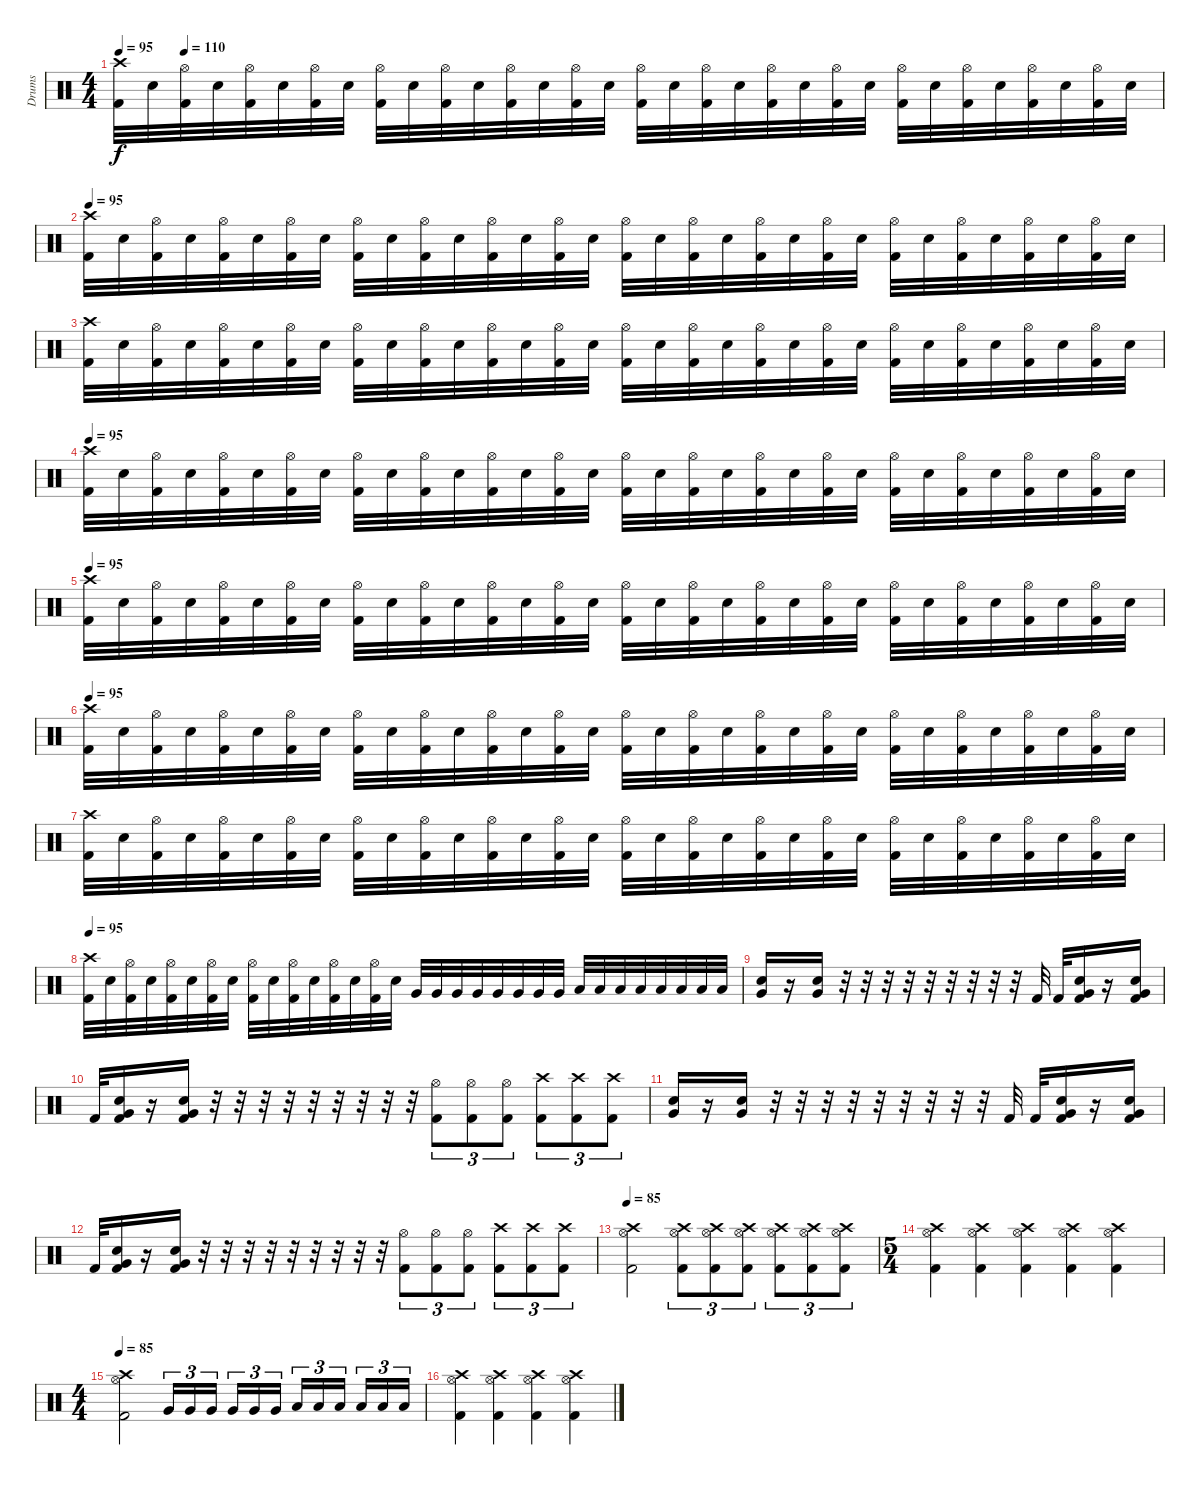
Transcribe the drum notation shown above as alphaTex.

\track ("Drums" "Drums") {instrument percussion}
\staff {score}
\articulation defaults
\ts (4 4)
\tempo 95
\tempo (110 0.0625)
\clef neutral
\ks c
("Crash high (hit)" "Kick (hit) 2").32{dy f} "Snare (hit) 2".32 ("Hi-Hat (open)" "Kick (hit) 2").32 "Snare (hit) 2".32 ("Hi-Hat (open)" "Kick (hit) 2").32 "Snare (hit) 2".32 ("Hi-Hat (open)" "Kick (hit) 2").32 "Snare (hit) 2".32 ("Hi-Hat (open)" "Kick (hit) 2").32 "Snare (hit) 2".32 ("Hi-Hat (open)" "Kick (hit) 2").32 "Snare (hit) 2".32 ("Hi-Hat (open)" "Kick (hit) 2").32 "Snare (hit) 2".32 ("Hi-Hat (open)" "Kick (hit) 2").32 "Snare (hit) 2".32 ("Hi-Hat (open)" "Kick (hit) 2").32 "Snare (hit) 2".32 ("Hi-Hat (open)" "Kick (hit) 2").32 "Snare (hit) 2".32 ("Hi-Hat (open)" "Kick (hit) 2").32 "Snare (hit) 2".32 ("Hi-Hat (open)" "Kick (hit) 2").32 "Snare (hit) 2".32 ("Hi-Hat (open)" "Kick (hit) 2").32 "Snare (hit) 2".32 ("Hi-Hat (open)" "Kick (hit) 2").32 "Snare (hit) 2".32 ("Hi-Hat (open)" "Kick (hit) 2").32 "Snare (hit) 2".32 ("Hi-Hat (open)" "Kick (hit) 2").32 "Snare (hit) 2".32 |
\tempo 95
("Crash high (hit)" "Kick (hit) 2").32 "Snare (hit) 2".32 ("Hi-Hat (open)" "Kick (hit) 2").32 "Snare (hit) 2".32 ("Hi-Hat (open)" "Kick (hit) 2").32 "Snare (hit) 2".32 ("Hi-Hat (open)" "Kick (hit) 2").32 "Snare (hit) 2".32 ("Hi-Hat (open)" "Kick (hit) 2").32 "Snare (hit) 2".32 ("Hi-Hat (open)" "Kick (hit) 2").32 "Snare (hit) 2".32 ("Hi-Hat (open)" "Kick (hit) 2").32 "Snare (hit) 2".32 ("Hi-Hat (open)" "Kick (hit) 2").32 "Snare (hit) 2".32 ("Hi-Hat (open)" "Kick (hit) 2").32 "Snare (hit) 2".32 ("Hi-Hat (open)" "Kick (hit) 2").32 "Snare (hit) 2".32 ("Hi-Hat (open)" "Kick (hit) 2").32 "Snare (hit) 2".32 ("Hi-Hat (open)" "Kick (hit) 2").32 "Snare (hit) 2".32 ("Hi-Hat (open)" "Kick (hit) 2").32 "Snare (hit) 2".32 ("Hi-Hat (open)" "Kick (hit) 2").32 "Snare (hit) 2".32 ("Hi-Hat (open)" "Kick (hit) 2").32 "Snare (hit) 2".32 ("Hi-Hat (open)" "Kick (hit) 2").32 "Snare (hit) 2".32 |
("Crash high (hit)" "Kick (hit) 2").32 "Snare (hit) 2".32 ("Hi-Hat (open)" "Kick (hit) 2").32 "Snare (hit) 2".32 ("Hi-Hat (open)" "Kick (hit) 2").32 "Snare (hit) 2".32 ("Hi-Hat (open)" "Kick (hit) 2").32 "Snare (hit) 2".32 ("Hi-Hat (open)" "Kick (hit) 2").32 "Snare (hit) 2".32 ("Hi-Hat (open)" "Kick (hit) 2").32 "Snare (hit) 2".32 ("Hi-Hat (open)" "Kick (hit) 2").32 "Snare (hit) 2".32 ("Hi-Hat (open)" "Kick (hit) 2").32 "Snare (hit) 2".32 ("Hi-Hat (open)" "Kick (hit) 2").32 "Snare (hit) 2".32 ("Hi-Hat (open)" "Kick (hit) 2").32 "Snare (hit) 2".32 ("Hi-Hat (open)" "Kick (hit) 2").32 "Snare (hit) 2".32 ("Hi-Hat (open)" "Kick (hit) 2").32 "Snare (hit) 2".32 ("Hi-Hat (open)" "Kick (hit) 2").32 "Snare (hit) 2".32 ("Hi-Hat (open)" "Kick (hit) 2").32 "Snare (hit) 2".32 ("Hi-Hat (open)" "Kick (hit) 2").32 "Snare (hit) 2".32 ("Hi-Hat (open)" "Kick (hit) 2").32 "Snare (hit) 2".32 |
\tempo 95
("Crash high (hit)" "Kick (hit) 2").32 "Snare (hit) 2".32 ("Hi-Hat (open)" "Kick (hit) 2").32 "Snare (hit) 2".32 ("Hi-Hat (open)" "Kick (hit) 2").32 "Snare (hit) 2".32 ("Hi-Hat (open)" "Kick (hit) 2").32 "Snare (hit) 2".32 ("Hi-Hat (open)" "Kick (hit) 2").32 "Snare (hit) 2".32 ("Hi-Hat (open)" "Kick (hit) 2").32 "Snare (hit) 2".32 ("Hi-Hat (open)" "Kick (hit) 2").32 "Snare (hit) 2".32 ("Hi-Hat (open)" "Kick (hit) 2").32 "Snare (hit) 2".32 ("Hi-Hat (open)" "Kick (hit) 2").32 "Snare (hit) 2".32 ("Hi-Hat (open)" "Kick (hit) 2").32 "Snare (hit) 2".32 ("Hi-Hat (open)" "Kick (hit) 2").32 "Snare (hit) 2".32 ("Hi-Hat (open)" "Kick (hit) 2").32 "Snare (hit) 2".32 ("Hi-Hat (open)" "Kick (hit) 2").32 "Snare (hit) 2".32 ("Hi-Hat (open)" "Kick (hit) 2").32 "Snare (hit) 2".32 ("Hi-Hat (open)" "Kick (hit) 2").32 "Snare (hit) 2".32 ("Hi-Hat (open)" "Kick (hit) 2").32 "Snare (hit) 2".32 |
\tempo 95
("Crash high (hit)" "Kick (hit) 2").32 "Snare (hit) 2".32 ("Hi-Hat (open)" "Kick (hit) 2").32 "Snare (hit) 2".32 ("Hi-Hat (open)" "Kick (hit) 2").32 "Snare (hit) 2".32 ("Hi-Hat (open)" "Kick (hit) 2").32 "Snare (hit) 2".32 ("Hi-Hat (open)" "Kick (hit) 2").32 "Snare (hit) 2".32 ("Hi-Hat (open)" "Kick (hit) 2").32 "Snare (hit) 2".32 ("Hi-Hat (open)" "Kick (hit) 2").32 "Snare (hit) 2".32 ("Hi-Hat (open)" "Kick (hit) 2").32 "Snare (hit) 2".32 ("Hi-Hat (open)" "Kick (hit) 2").32 "Snare (hit) 2".32 ("Hi-Hat (open)" "Kick (hit) 2").32 "Snare (hit) 2".32 ("Hi-Hat (open)" "Kick (hit) 2").32 "Snare (hit) 2".32 ("Hi-Hat (open)" "Kick (hit) 2").32 "Snare (hit) 2".32 ("Hi-Hat (open)" "Kick (hit) 2").32 "Snare (hit) 2".32 ("Hi-Hat (open)" "Kick (hit) 2").32 "Snare (hit) 2".32 ("Hi-Hat (open)" "Kick (hit) 2").32 "Snare (hit) 2".32 ("Hi-Hat (open)" "Kick (hit) 2").32 "Snare (hit) 2".32 |
\tempo 95
("Crash high (hit)" "Kick (hit) 2").32 "Snare (hit) 2".32 ("Hi-Hat (open)" "Kick (hit) 2").32 "Snare (hit) 2".32 ("Hi-Hat (open)" "Kick (hit) 2").32 "Snare (hit) 2".32 ("Hi-Hat (open)" "Kick (hit) 2").32 "Snare (hit) 2".32 ("Hi-Hat (open)" "Kick (hit) 2").32 "Snare (hit) 2".32 ("Hi-Hat (open)" "Kick (hit) 2").32 "Snare (hit) 2".32 ("Hi-Hat (open)" "Kick (hit) 2").32 "Snare (hit) 2".32 ("Hi-Hat (open)" "Kick (hit) 2").32 "Snare (hit) 2".32 ("Hi-Hat (open)" "Kick (hit) 2").32 "Snare (hit) 2".32 ("Hi-Hat (open)" "Kick (hit) 2").32 "Snare (hit) 2".32 ("Hi-Hat (open)" "Kick (hit) 2").32 "Snare (hit) 2".32 ("Hi-Hat (open)" "Kick (hit) 2").32 "Snare (hit) 2".32 ("Hi-Hat (open)" "Kick (hit) 2").32 "Snare (hit) 2".32 ("Hi-Hat (open)" "Kick (hit) 2").32 "Snare (hit) 2".32 ("Hi-Hat (open)" "Kick (hit) 2").32 "Snare (hit) 2".32 ("Hi-Hat (open)" "Kick (hit) 2").32 "Snare (hit) 2".32 |
("Crash high (hit)" "Kick (hit) 2").32 "Snare (hit) 2".32 ("Hi-Hat (open)" "Kick (hit) 2").32 "Snare (hit) 2".32 ("Hi-Hat (open)" "Kick (hit) 2").32 "Snare (hit) 2".32 ("Hi-Hat (open)" "Kick (hit) 2").32 "Snare (hit) 2".32 ("Hi-Hat (open)" "Kick (hit) 2").32 "Snare (hit) 2".32 ("Hi-Hat (open)" "Kick (hit) 2").32 "Snare (hit) 2".32 ("Hi-Hat (open)" "Kick (hit) 2").32 "Snare (hit) 2".32 ("Hi-Hat (open)" "Kick (hit) 2").32 "Snare (hit) 2".32 ("Hi-Hat (open)" "Kick (hit) 2").32 "Snare (hit) 2".32 ("Hi-Hat (open)" "Kick (hit) 2").32 "Snare (hit) 2".32 ("Hi-Hat (open)" "Kick (hit) 2").32 "Snare (hit) 2".32 ("Hi-Hat (open)" "Kick (hit) 2").32 "Snare (hit) 2".32 ("Hi-Hat (open)" "Kick (hit) 2").32 "Snare (hit) 2".32 ("Hi-Hat (open)" "Kick (hit) 2").32 "Snare (hit) 2".32 ("Hi-Hat (open)" "Kick (hit) 2").32 "Snare (hit) 2".32 ("Hi-Hat (open)" "Kick (hit) 2").32 "Snare (hit) 2".32 |
\tempo 95
("Crash high (hit)" "Kick (hit) 2").32 "Snare (hit) 2".32 ("Hi-Hat (open)" "Kick (hit) 2").32 "Snare (hit) 2".32 ("Hi-Hat (open)" "Kick (hit) 2").32 "Snare (hit) 2".32 ("Hi-Hat (open)" "Kick (hit) 2").32 "Snare (hit) 2".32 ("Hi-Hat (open)" "Kick (hit) 2").32 "Snare (hit) 2".32 ("Hi-Hat (open)" "Kick (hit) 2").32 "Snare (hit) 2".32 ("Hi-Hat (open)" "Kick (hit) 2").32 "Snare (hit) 2".32 ("Hi-Hat (open)" "Kick (hit) 2").32 "Snare (hit) 2".32 "Very Low Tom (hit)".32 "Very Low Tom (hit)".32 "Very Low Tom (hit)".32 "Very Low Tom (hit)".32 "Very Low Tom (hit)".32 "Very Low Tom (hit)".32 "Very Low Tom (hit)".32 "Very Low Tom (hit)".32 "Low Floor Tom (hit)".32 "Low Floor Tom (hit)".32 "Low Floor Tom (hit)".32 "Low Floor Tom (hit)".32 "Low Floor Tom (hit)".32 "Low Floor Tom (hit)".32 "Low Floor Tom (hit)".32 "Low Floor Tom (hit)".32 |
("Very Low Tom (hit)" "Snare (hit) 2").16 r.16 ("Very Low Tom (hit)" "Snare (hit) 2").16 r.32 r.32 r.32 r.32 r.32 r.32 r.32 r.32 r.32 "Kick (hit) 2".32 "Kick (hit) 2".32 ("Very Low Tom (hit)" "Snare (hit) 2" "Kick (hit) 2").16 r.16 ("Very Low Tom (hit)" "Snare (hit) 2" "Kick (hit) 2").16 |
"Kick (hit) 2".32 ("Very Low Tom (hit)" "Snare (hit) 2" "Kick (hit) 2").16 r.16 ("Very Low Tom (hit)" "Snare (hit) 2" "Kick (hit) 2").16 r.32 r.32 r.32 r.32 r.32 r.32 r.32 r.32 r.32 ("Hi-Hat (open)" "Kick (hit) 2").8{tu (3 2)} ("Hi-Hat (open)" "Kick (hit) 2").8{tu (3 2)} ("Hi-Hat (open)" "Kick (hit) 2").8{tu (3 2)} ("Crash high (hit)" "Kick (hit) 2").8{tu (3 2)} ("Crash high (hit)" "Kick (hit) 2").8{tu (3 2)} ("Crash high (hit)" "Kick (hit) 2").8{tu (3 2)} |
("Very Low Tom (hit)" "Snare (hit) 2").16 r.16 ("Very Low Tom (hit)" "Snare (hit) 2").16 r.32 r.32 r.32 r.32 r.32 r.32 r.32 r.32 r.32 "Kick (hit) 2".32 "Kick (hit) 2".32 ("Very Low Tom (hit)" "Snare (hit) 2" "Kick (hit) 2").16 r.16 ("Very Low Tom (hit)" "Snare (hit) 2" "Kick (hit) 2").16 |
"Kick (hit) 2".32 ("Very Low Tom (hit)" "Snare (hit) 2" "Kick (hit) 2").16 r.16 ("Very Low Tom (hit)" "Snare (hit) 2" "Kick (hit) 2").16 r.32 r.32 r.32 r.32 r.32 r.32 r.32 r.32 r.32 ("Hi-Hat (open)" "Kick (hit) 2").8{tu (3 2)} ("Hi-Hat (open)" "Kick (hit) 2").8{tu (3 2)} ("Hi-Hat (open)" "Kick (hit) 2").8{tu (3 2)} ("Crash high (hit)" "Kick (hit) 2").8{tu (3 2)} ("Crash high (hit)" "Kick (hit) 2").8{tu (3 2)} ("Crash high (hit)" "Kick (hit) 2").8{tu (3 2)} |
\tempo 75
\tempo 85
("Crash high (hit)" "Hi-Hat (open)" "Kick (hit) 2").2 ("Crash high (hit)" "Hi-Hat (open)" "Kick (hit) 2").8{tu (3 2)} ("Crash high (hit)" "Hi-Hat (open)" "Kick (hit) 2").8{tu (3 2)} ("Crash high (hit)" "Hi-Hat (open)" "Kick (hit) 2").8{tu (3 2)} ("Crash high (hit)" "Hi-Hat (open)" "Kick (hit) 2").8{tu (3 2)} ("Crash high (hit)" "Hi-Hat (open)" "Kick (hit) 2").8{tu (3 2)} ("Crash high (hit)" "Hi-Hat (open)" "Kick (hit) 2").8{tu (3 2)} |
\ts (5 4)
("Crash high (hit)" "Hi-Hat (open)" "Kick (hit) 2").4 ("Crash high (hit)" "Hi-Hat (open)" "Kick (hit) 2").4 ("Crash high (hit)" "Hi-Hat (open)" "Kick (hit) 2").4 ("Crash high (hit)" "Hi-Hat (open)" "Kick (hit) 2").4 ("Crash high (hit)" "Hi-Hat (open)" "Kick (hit) 2").4 |
\ts (4 4)
\tempo 85
("Crash high (hit)" "Hi-Hat (open)" "Kick (hit) 2").2 "Very Low Tom (hit)".16{tu (3 2)} "Very Low Tom (hit)".16{tu (3 2)} "Very Low Tom (hit)".16{tu (3 2) beam splitsecondary} "Very Low Tom (hit)".16{tu (3 2)} "Very Low Tom (hit)".16{tu (3 2)} "Very Low Tom (hit)".16{tu (3 2)} "Low Floor Tom (hit)".16{tu (3 2)} "Low Floor Tom (hit)".16{tu (3 2)} "Low Floor Tom (hit)".16{tu (3 2) beam splitsecondary} "Low Floor Tom (hit)".16{tu (3 2)} "Low Floor Tom (hit)".16{tu (3 2)} "Low Floor Tom (hit)".16{tu (3 2)} |
("Crash high (hit)" "Hi-Hat (open)" "Kick (hit) 2").4 ("Crash high (hit)" "Hi-Hat (open)" "Kick (hit) 2").4 ("Crash high (hit)" "Hi-Hat (open)" "Kick (hit) 2").4 ("Crash high (hit)" "Hi-Hat (open)" "Kick (hit) 2").4
